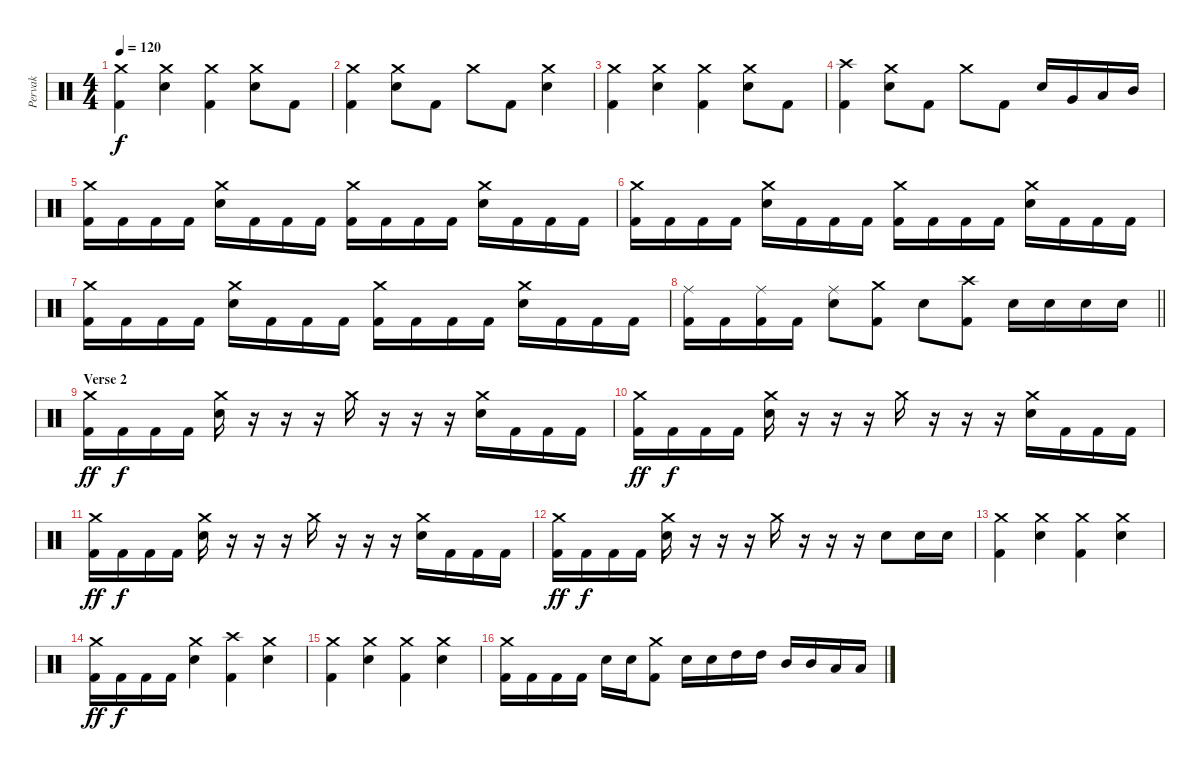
\track ("Pervak" "Pervak") {instrument percussion}
\staff {score}
\articulation defaults
\ts (4 4)
\tempo 120
\clef neutral
\ks c
("Crash medium (hit)" "Kick (hit) 2").4{dy f volume 12} ("Crash medium (hit)" "Electric Snare (hit)").4 ("Crash medium (hit)" "Kick (hit) 2").4 ("Crash medium (hit)" "Electric Snare (hit)").8 "Kick (hit) 2".8 |
("Crash medium (hit)" "Kick (hit) 2").4 ("Crash medium (hit)" "Electric Snare (hit)").8 "Kick (hit) 2".8 "Crash medium (hit)".8 "Kick (hit) 2".8 ("Crash medium (hit)" "Electric Snare (hit)").4 |
("Crash medium (hit)" "Kick (hit) 2").4 ("Crash medium (hit)" "Electric Snare (hit)").4 ("Crash medium (hit)" "Kick (hit) 2").4 ("Crash medium (hit)" "Electric Snare (hit)").8 "Kick (hit) 2".8 |
("Crash high (hit)" "Kick (hit) 2").4 ("Crash medium (hit)" "Electric Snare (hit)").8 "Kick (hit) 2".8 "Crash medium (hit)".8 "Kick (hit) 2".8 "Electric Snare (hit)".16 "Very Low Tom (hit)".16 "Low Tom (hit)".16 "Mid Tom (hit)".16 |
("Crash medium (hit)" "Kick (hit) 2").16 "Kick (hit) 2".16 "Kick (hit) 2".16 "Kick (hit) 2".16 ("Crash medium (hit)" "Electric Snare (hit)").16 "Kick (hit) 2".16 "Kick (hit) 2".16 "Kick (hit) 2".16 ("Crash medium (hit)" "Kick (hit) 2").16 "Kick (hit) 2".16 "Kick (hit) 2".16 "Kick (hit) 2".16 ("Crash medium (hit)" "Electric Snare (hit)").16 "Kick (hit) 2".16 "Kick (hit) 2".16 "Kick (hit) 2".16 |
("Crash medium (hit)" "Kick (hit) 2").16 "Kick (hit) 2".16 "Kick (hit) 2".16 "Kick (hit) 2".16 ("Crash medium (hit)" "Electric Snare (hit)").16 "Kick (hit) 2".16 "Kick (hit) 2".16 "Kick (hit) 2".16 ("Crash medium (hit)" "Kick (hit) 2").16 "Kick (hit) 2".16 "Kick (hit) 2".16 "Kick (hit) 2".16 ("Crash medium (hit)" "Electric Snare (hit)").16 "Kick (hit) 2".16 "Kick (hit) 2".16 "Kick (hit) 2".16 |
("Crash medium (hit)" "Kick (hit) 2").16 "Kick (hit) 2".16 "Kick (hit) 2".16 "Kick (hit) 2".16 ("Crash medium (hit)" "Electric Snare (hit)").16 "Kick (hit) 2".16 "Kick (hit) 2".16 "Kick (hit) 2".16 ("Crash medium (hit)" "Kick (hit) 2").16 "Kick (hit) 2".16 "Kick (hit) 2".16 "Kick (hit) 2".16 ("Crash medium (hit)" "Electric Snare (hit)").16 "Kick (hit) 2".16 "Kick (hit) 2".16 "Kick (hit) 2".16 |
\barLineRight lightlight
("Ride (middle)" "Kick (hit) 2").16 "Kick (hit) 2".16 ("Ride (middle)" "Kick (hit) 2").16 "Kick (hit) 2".16 ("Ride (middle)" "Electric Snare (hit)").8 ("Crash medium (hit)" "Kick (hit) 2").8 "Electric Snare (hit)".8 ("Crash high (hit)" "Kick (hit) 2").8 "Electric Snare (hit)".16 "Electric Snare (hit)".16 "Electric Snare (hit)".16 "Electric Snare (hit)".16 |
\section ("" "Verse 2")
("Crash medium (hit)" "Kick (hit) 2").16{dy ff} "Kick (hit) 2".16{dy f} "Kick (hit) 2".16 "Kick (hit) 2".16 ("Crash medium (hit)" "Electric Snare (hit)").16 r.16 r.16 r.16 "Crash medium (hit)".16 r.16 r.16 r.16 ("Crash medium (hit)" "Electric Snare (hit)").16 "Kick (hit) 2".16 "Kick (hit) 2".16 "Kick (hit) 2".16 |
("Crash medium (hit)" "Kick (hit) 2").16{dy ff} "Kick (hit) 2".16{dy f} "Kick (hit) 2".16 "Kick (hit) 2".16 ("Crash medium (hit)" "Electric Snare (hit)").16 r.16 r.16 r.16 "Crash medium (hit)".16 r.16 r.16 r.16 ("Crash medium (hit)" "Electric Snare (hit)").16 "Kick (hit) 2".16 "Kick (hit) 2".16 "Kick (hit) 2".16 |
("Crash medium (hit)" "Kick (hit) 2").16{dy ff} "Kick (hit) 2".16{dy f} "Kick (hit) 2".16 "Kick (hit) 2".16 ("Crash medium (hit)" "Electric Snare (hit)").16 r.16 r.16 r.16 "Crash medium (hit)".16 r.16 r.16 r.16 ("Crash medium (hit)" "Electric Snare (hit)").16 "Kick (hit) 2".16 "Kick (hit) 2".16 "Kick (hit) 2".16 |
("Crash medium (hit)" "Kick (hit) 2").16{dy ff} "Kick (hit) 2".16{dy f} "Kick (hit) 2".16 "Kick (hit) 2".16 ("Crash medium (hit)" "Electric Snare (hit)").16 r.16 r.16 r.16 "Crash medium (hit)".16 r.16 r.16 r.16 "Electric Snare (hit)".8 "Electric Snare (hit)".16 "Electric Snare (hit)".16 |
("Crash medium (hit)" "Kick (hit) 2").4 ("Crash medium (hit)" "Electric Snare (hit)").4 ("Crash medium (hit)" "Kick (hit) 2").4 ("Crash medium (hit)" "Electric Snare (hit)").4 |
("Crash medium (hit)" "Kick (hit) 2").16{dy ff} "Kick (hit) 2".16{dy f} "Kick (hit) 2".16 "Kick (hit) 2".16 ("Crash medium (hit)" "Electric Snare (hit)").4 ("Crash high (hit)" "Kick (hit) 2").4 ("Crash medium (hit)" "Electric Snare (hit)").4 |
("Crash medium (hit)" "Kick (hit) 2").4 ("Crash medium (hit)" "Electric Snare (hit)").4 ("Crash medium (hit)" "Kick (hit) 2").4 ("Crash medium (hit)" "Electric Snare (hit)").4 |
("Crash medium (hit)" "Kick (hit) 2").16 "Kick (hit) 2".16 "Kick (hit) 2".16 "Kick (hit) 2".16 "Electric Snare (hit)".16 "Electric Snare (hit)".16 ("Crash medium (hit)" "Kick (hit) 2").8 "Electric Snare (hit)".16 "Electric Snare (hit)".16 "High Tom (hit)".16 "High Tom (hit)".16 "Mid Tom (hit)".16 "Mid Tom (hit)".16 "Low Tom (hit)".16 "Low Tom (hit)".16
